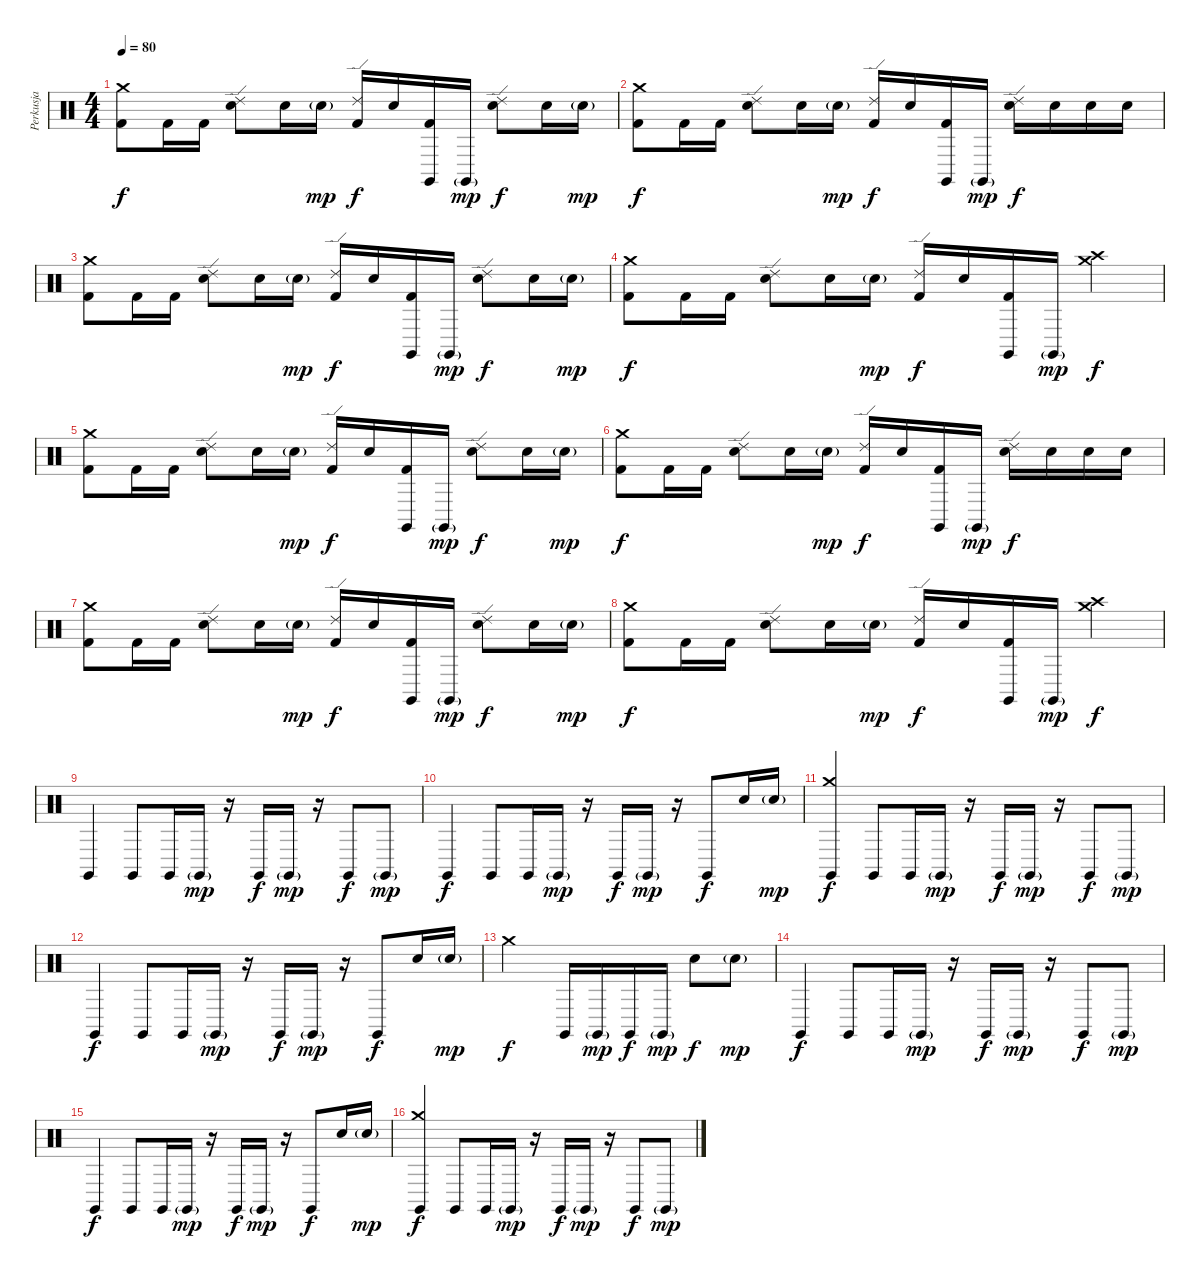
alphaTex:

\track ("Perkusja" "Perkusja") {instrument percussion}
\staff {score}
\articulation defaults
\ts (4 4)
\tempo 80
\clef neutral
\ks c
("Crash medium (hit)" "Kick (hit) 2").8{dy f} "Kick (hit) 2".16 "Kick (hit) 2".16 ("Ride (edge) 2" "Snare (hit) 2").8 "Snare (hit) 2".16 "Snare (hit) 2"{g}.16{dy mp} ("Ride (edge) 2" "Kick (hit) 2").16{dy f} "Snare (hit) 2".16 ("Claves (hit)" "Kick (hit) 2").16 "Claves (hit)"{g}.16{dy mp} ("Ride (edge) 2" "Snare (hit) 2").8{dy f} "Snare (hit) 2".16 "Snare (hit) 2"{g}.16{dy mp} |
("Crash medium (hit)" "Kick (hit) 2").8{dy f} "Kick (hit) 2".16 "Kick (hit) 2".16 ("Ride (edge) 2" "Snare (hit) 2").8 "Snare (hit) 2".16 "Snare (hit) 2"{g}.16{dy mp} ("Ride (edge) 2" "Kick (hit) 2").16{dy f} "Snare (hit) 2".16 ("Claves (hit)" "Kick (hit) 2").16 "Claves (hit)"{g}.16{dy mp} ("Ride (edge) 2" "Snare (hit) 2").16{dy f} "Electric Snare (hit)".16 "Electric Snare (hit)".16 "Electric Snare (hit)".16 |
("Crash medium (hit)" "Kick (hit) 2").8 "Kick (hit) 2".16 "Kick (hit) 2".16 ("Ride (edge) 2" "Snare (hit) 2").8 "Snare (hit) 2".16 "Snare (hit) 2"{g}.16{dy mp} ("Ride (edge) 2" "Kick (hit) 2").16{dy f} "Snare (hit) 2".16 ("Claves (hit)" "Kick (hit) 2").16 "Claves (hit)"{g}.16{dy mp} ("Ride (edge) 2" "Snare (hit) 2").8{dy f} "Snare (hit) 2".16 "Snare (hit) 2"{g}.16{dy mp} |
("Crash medium (hit)" "Kick (hit) 2").8{dy f} "Kick (hit) 2".16 "Kick (hit) 2".16 ("Ride (edge) 2" "Snare (hit) 2").8 "Snare (hit) 2".16 "Snare (hit) 2"{g}.16{dy mp} ("Ride (edge) 2" "Kick (hit) 2").16{dy f} "Snare (hit) 2".16 ("Claves (hit)" "Kick (hit) 2").16 "Claves (hit)"{g}.16{dy mp} ("Crash high (hit)" "Crash medium (hit)").4{dy f} |
("Crash medium (hit)" "Kick (hit) 2").8 "Kick (hit) 2".16 "Kick (hit) 2".16 ("Ride (edge) 2" "Snare (hit) 2").8 "Snare (hit) 2".16 "Snare (hit) 2"{g}.16{dy mp} ("Ride (edge) 2" "Kick (hit) 2").16{dy f} "Snare (hit) 2".16 ("Claves (hit)" "Kick (hit) 2").16 "Claves (hit)"{g}.16{dy mp} ("Ride (edge) 2" "Snare (hit) 2").8{dy f} "Snare (hit) 2".16 "Snare (hit) 2"{g}.16{dy mp} |
("Crash medium (hit)" "Kick (hit) 2").8{dy f} "Kick (hit) 2".16 "Kick (hit) 2".16 ("Ride (edge) 2" "Snare (hit) 2").8 "Snare (hit) 2".16 "Snare (hit) 2"{g}.16{dy mp} ("Ride (edge) 2" "Kick (hit) 2").16{dy f} "Snare (hit) 2".16 ("Claves (hit)" "Kick (hit) 2").16 "Claves (hit)"{g}.16{dy mp} ("Ride (edge) 2" "Snare (hit) 2").16{dy f} "Electric Snare (hit)".16 "Electric Snare (hit)".16 "Electric Snare (hit)".16 |
("Crash medium (hit)" "Kick (hit) 2").8 "Kick (hit) 2".16 "Kick (hit) 2".16 ("Ride (edge) 2" "Snare (hit) 2").8 "Snare (hit) 2".16 "Snare (hit) 2"{g}.16{dy mp} ("Ride (edge) 2" "Kick (hit) 2").16{dy f} "Snare (hit) 2".16 ("Claves (hit)" "Kick (hit) 2").16 "Claves (hit)"{g}.16{dy mp} ("Ride (edge) 2" "Snare (hit) 2").8{dy f} "Snare (hit) 2".16 "Snare (hit) 2"{g}.16{dy mp} |
("Crash medium (hit)" "Kick (hit) 2").8{dy f} "Kick (hit) 2".16 "Kick (hit) 2".16 ("Ride (edge) 2" "Snare (hit) 2").8 "Snare (hit) 2".16 "Snare (hit) 2"{g}.16{dy mp} ("Ride (edge) 2" "Kick (hit) 2").16{dy f} "Snare (hit) 2".16 ("Claves (hit)" "Kick (hit) 2").16 "Claves (hit)"{g}.16{dy mp} ("Crash high (hit)" "Crash medium (hit)").4{dy f} |
"Claves (hit)".4 "Claves (hit)".8 "Claves (hit)".16 "Claves (hit)"{g}.16{dy mp} r.16 "Claves (hit)".16{dy f} "Claves (hit)"{g}.16{dy mp} r.16 "Claves (hit)".8{dy f} "Claves (hit)"{g}.8{dy mp} |
"Claves (hit)".4{dy f} "Claves (hit)".8 "Claves (hit)".16 "Claves (hit)"{g}.16{dy mp} r.16 "Claves (hit)".16{dy f} "Claves (hit)"{g}.16{dy mp} r.16 "Claves (hit)".8{dy f} "Snare (hit) 2".16 "Snare (hit) 2"{g}.16{dy mp} |
("Crash medium (hit)" "Claves (hit)").4{dy f} "Claves (hit)".8 "Claves (hit)".16 "Claves (hit)"{g}.16{dy mp} r.16 "Claves (hit)".16{dy f} "Claves (hit)"{g}.16{dy mp} r.16 "Claves (hit)".8{dy f} "Claves (hit)"{g}.8{dy mp} |
"Claves (hit)".4{dy f} "Claves (hit)".8 "Claves (hit)".16 "Claves (hit)"{g}.16{dy mp} r.16 "Claves (hit)".16{dy f} "Claves (hit)"{g}.16{dy mp} r.16 "Claves (hit)".8{dy f} "Snare (hit) 2".16 "Snare (hit) 2"{g}.16{dy mp} |
"Crash medium (hit)".2{dy f} "Claves (hit)".16 "Claves (hit)"{g}.16{dy mp} "Claves (hit)".16{dy f} "Claves (hit)"{g}.16{dy mp} "Snare (hit) 2".8{dy f} "Snare (hit) 2"{g}.8{dy mp} |
"Claves (hit)".4{dy f} "Claves (hit)".8 "Claves (hit)".16 "Claves (hit)"{g}.16{dy mp} r.16 "Claves (hit)".16{dy f} "Claves (hit)"{g}.16{dy mp} r.16 "Claves (hit)".8{dy f} "Claves (hit)"{g}.8{dy mp} |
"Claves (hit)".4{dy f} "Claves (hit)".8 "Claves (hit)".16 "Claves (hit)"{g}.16{dy mp} r.16 "Claves (hit)".16{dy f} "Claves (hit)"{g}.16{dy mp} r.16 "Claves (hit)".8{dy f} "Snare (hit) 2".16 "Snare (hit) 2"{g}.16{dy mp} |
("Crash medium (hit)" "Claves (hit)").4{dy f} "Claves (hit)".8 "Claves (hit)".16 "Claves (hit)"{g}.16{dy mp} r.16 "Claves (hit)".16{dy f} "Claves (hit)"{g}.16{dy mp} r.16 "Claves (hit)".8{dy f} "Claves (hit)"{g}.8{dy mp}
